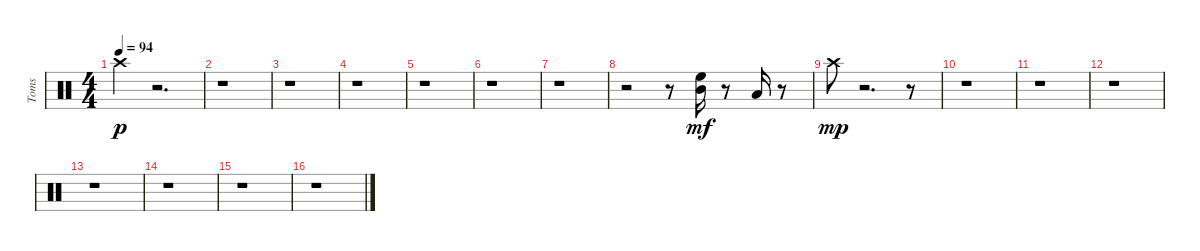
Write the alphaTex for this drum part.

\track ("Toms" "Toms") {instrument percussion}
\staff {score}
\articulation defaults
\ts (4 4)
\tempo 94
\clef neutral
\ks c "Crash high (hit)".4{dy p}
r.2{d} |
r.1 |
r.1 |
r.1 |
r.1 |
r.1 |
r.1 |
r.2 r.8 ("Mid Tom (hit)" "High Floor Tom (hit)").16{dy mf} r.8 "Low Tom (hit)".16 r.8 |
"Crash high (hit)".8{dy mp} r.2{d} r.8 |
r.1 |
r.1 |
r.1 |
r.1 |
r.1 |
r.1 |
r.1
